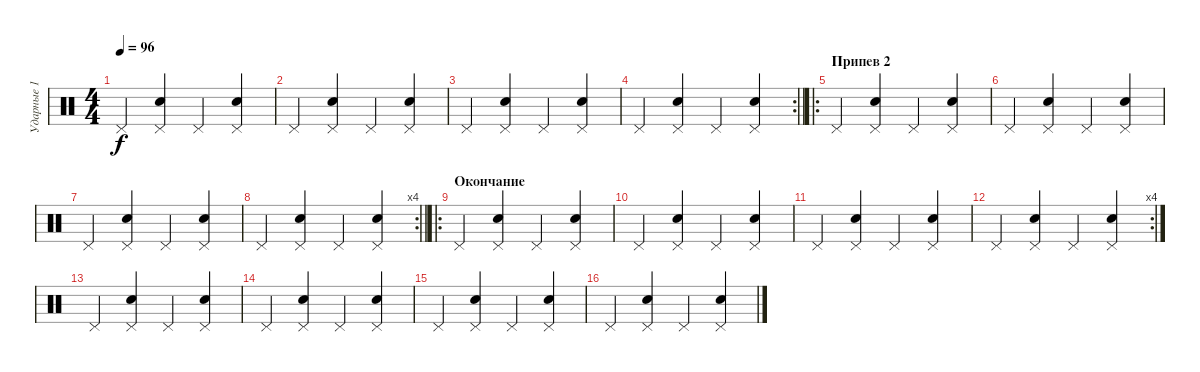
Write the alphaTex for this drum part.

\track ("Ударные 1" "Ударные 1") {instrument percussion}
\staff {score}
\articulation defaults
\ts (4 4)
\tempo 96
\clef neutral
\ks c "Pedal Hi-Hat (hit)".4{dy f}
("Pedal Hi-Hat (hit)" "Electric Snare (hit)").4 "Pedal Hi-Hat (hit)".4 ("Pedal Hi-Hat (hit)" "Electric Snare (hit)").4 |
"Pedal Hi-Hat (hit)".4 ("Pedal Hi-Hat (hit)" "Electric Snare (hit)").4 "Pedal Hi-Hat (hit)".4 ("Pedal Hi-Hat (hit)" "Electric Snare (hit)").4 |
"Pedal Hi-Hat (hit)".4 ("Pedal Hi-Hat (hit)" "Electric Snare (hit)").4 "Pedal Hi-Hat (hit)".4 ("Pedal Hi-Hat (hit)" "Electric Snare (hit)").4 |
\rc 2
\barLineRight lightlight "Pedal Hi-Hat (hit)".4
("Pedal Hi-Hat (hit)" "Electric Snare (hit)").4 "Pedal Hi-Hat (hit)".4 ("Pedal Hi-Hat (hit)" "Electric Snare (hit)").4 |
\ro
\section ("" "Припев 2")
"Pedal Hi-Hat (hit)".4 ("Pedal Hi-Hat (hit)" "Electric Snare (hit)").4 "Pedal Hi-Hat (hit)".4 ("Pedal Hi-Hat (hit)" "Electric Snare (hit)").4 |
"Pedal Hi-Hat (hit)".4 ("Pedal Hi-Hat (hit)" "Electric Snare (hit)").4 "Pedal Hi-Hat (hit)".4 ("Pedal Hi-Hat (hit)" "Electric Snare (hit)").4 |
"Pedal Hi-Hat (hit)".4 ("Pedal Hi-Hat (hit)" "Electric Snare (hit)").4 "Pedal Hi-Hat (hit)".4 ("Pedal Hi-Hat (hit)" "Electric Snare (hit)").4 |
\rc 4
\barLineRight lightlight "Pedal Hi-Hat (hit)".4
("Pedal Hi-Hat (hit)" "Electric Snare (hit)").4 "Pedal Hi-Hat (hit)".4 ("Pedal Hi-Hat (hit)" "Electric Snare (hit)").4 |
\ro
\section ("" "Окончание")
"Pedal Hi-Hat (hit)".4 ("Pedal Hi-Hat (hit)" "Electric Snare (hit)").4 "Pedal Hi-Hat (hit)".4 ("Pedal Hi-Hat (hit)" "Electric Snare (hit)").4 |
"Pedal Hi-Hat (hit)".4 ("Pedal Hi-Hat (hit)" "Electric Snare (hit)").4 "Pedal Hi-Hat (hit)".4 ("Pedal Hi-Hat (hit)" "Electric Snare (hit)").4 |
"Pedal Hi-Hat (hit)".4 ("Pedal Hi-Hat (hit)" "Electric Snare (hit)").4 "Pedal Hi-Hat (hit)".4 ("Pedal Hi-Hat (hit)" "Electric Snare (hit)").4 |
\rc 4 "Pedal Hi-Hat (hit)".4
("Pedal Hi-Hat (hit)" "Electric Snare (hit)").4 "Pedal Hi-Hat (hit)".4 ("Pedal Hi-Hat (hit)" "Electric Snare (hit)").4 |
"Pedal Hi-Hat (hit)".4{volume 8} ("Pedal Hi-Hat (hit)" "Electric Snare (hit)").4 "Pedal Hi-Hat (hit)".4 ("Pedal Hi-Hat (hit)" "Electric Snare (hit)").4 |
"Pedal Hi-Hat (hit)".4{volume 6} ("Pedal Hi-Hat (hit)" "Electric Snare (hit)").4 "Pedal Hi-Hat (hit)".4 ("Pedal Hi-Hat (hit)" "Electric Snare (hit)").4 |
"Pedal Hi-Hat (hit)".4{volume 4} ("Pedal Hi-Hat (hit)" "Electric Snare (hit)").4 "Pedal Hi-Hat (hit)".4 ("Pedal Hi-Hat (hit)" "Electric Snare (hit)").4 |
"Pedal Hi-Hat (hit)".4{volume 2} ("Pedal Hi-Hat (hit)" "Electric Snare (hit)").4 "Pedal Hi-Hat (hit)".4 ("Pedal Hi-Hat (hit)" "Electric Snare (hit)").4
